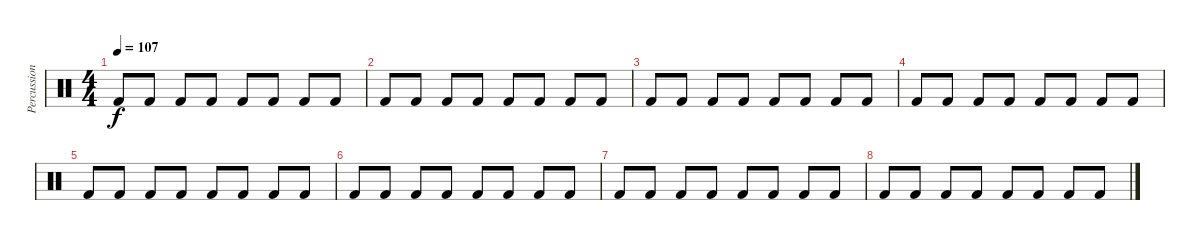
\track ("Percussion" "Percussion") {instrument percussion}
\staff {score}
\articulation defaults
\ts (4 4)
\tempo 107
\clef neutral
\ks c "Kick (hit) 2".8{dy f} "Kick (hit) 2".8 "Kick (hit) 2".8 "Kick (hit) 2".8 "Kick (hit) 2".8 "Kick (hit) 2".8 "Kick (hit) 2".8 "Kick (hit) 2".8
|
"Kick (hit) 2".8 "Kick (hit) 2".8 "Kick (hit) 2".8 "Kick (hit) 2".8 "Kick (hit) 2".8 "Kick (hit) 2".8 "Kick (hit) 2".8 "Kick (hit) 2".8 |
"Kick (hit) 2".8 "Kick (hit) 2".8 "Kick (hit) 2".8 "Kick (hit) 2".8 "Kick (hit) 2".8 "Kick (hit) 2".8 "Kick (hit) 2".8 "Kick (hit) 2".8 |
"Kick (hit) 2".8 "Kick (hit) 2".8 "Kick (hit) 2".8 "Kick (hit) 2".8 "Kick (hit) 2".8 "Kick (hit) 2".8 "Kick (hit) 2".8 "Kick (hit) 2".8 |
"Kick (hit) 2".8 "Kick (hit) 2".8 "Kick (hit) 2".8 "Kick (hit) 2".8 "Kick (hit) 2".8 "Kick (hit) 2".8 "Kick (hit) 2".8 "Kick (hit) 2".8 |
"Kick (hit) 2".8 "Kick (hit) 2".8 "Kick (hit) 2".8 "Kick (hit) 2".8 "Kick (hit) 2".8 "Kick (hit) 2".8 "Kick (hit) 2".8 "Kick (hit) 2".8 |
"Kick (hit) 2".8 "Kick (hit) 2".8 "Kick (hit) 2".8 "Kick (hit) 2".8 "Kick (hit) 2".8 "Kick (hit) 2".8 "Kick (hit) 2".8 "Kick (hit) 2".8 |
"Kick (hit) 2".8 "Kick (hit) 2".8 "Kick (hit) 2".8 "Kick (hit) 2".8 "Kick (hit) 2".8 "Kick (hit) 2".8 "Kick (hit) 2".8 "Kick (hit) 2".8
